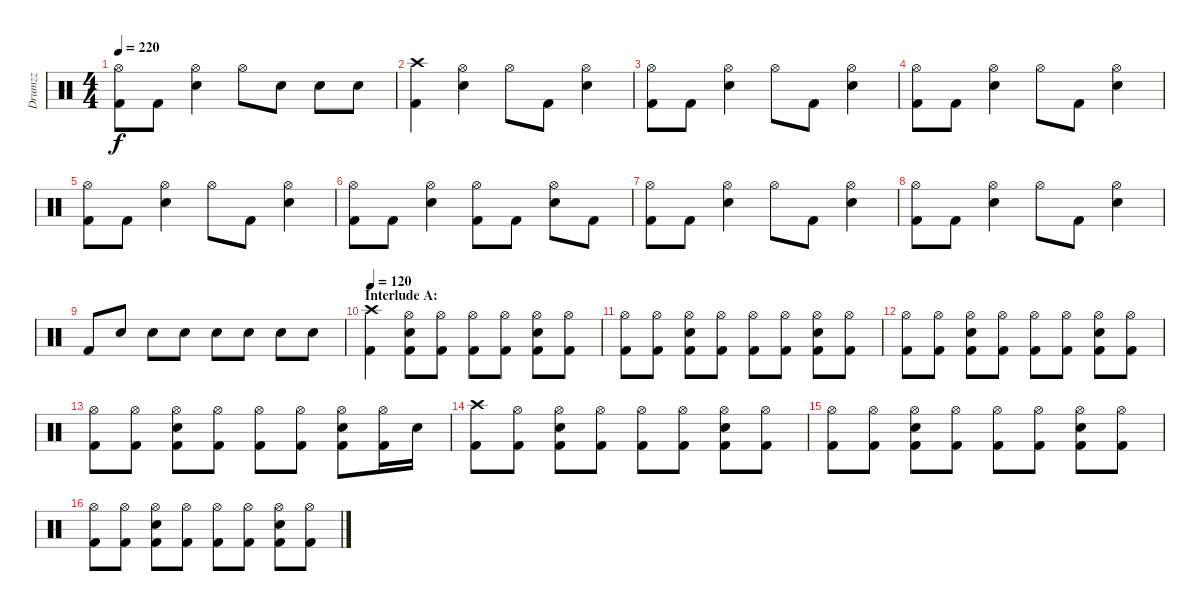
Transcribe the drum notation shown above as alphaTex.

\track ("Drumzz" "Drumzz") {instrument percussion}
\staff {score}
\articulation defaults
\ts (4 4)
\tempo 220
\clef neutral
\ks c
("Hi-Hat (open)" "Kick (hit) 2").8{dy f} "Kick (hit) 2".8 ("Hi-Hat (open)" "Electric Snare (hit)").4 "Hi-Hat (open)".8 "Electric Snare (hit)".8 "Electric Snare (hit)".8 "Electric Snare (hit)".8 |
("Crash high (hit)" "Kick (hit) 2").4 ("Hi-Hat (open)" "Electric Snare (hit)").4 "Hi-Hat (open)".8 "Kick (hit) 2".8 ("Hi-Hat (open)" "Electric Snare (hit)").4 |
("Hi-Hat (open)" "Kick (hit) 2").8 "Kick (hit) 2".8 ("Hi-Hat (open)" "Electric Snare (hit)").4 "Hi-Hat (open)".8 "Kick (hit) 2".8 ("Hi-Hat (open)" "Electric Snare (hit)").4 |
("Hi-Hat (open)" "Kick (hit) 2").8 "Kick (hit) 2".8 ("Hi-Hat (open)" "Electric Snare (hit)").4 "Hi-Hat (open)".8 "Kick (hit) 2".8 ("Hi-Hat (open)" "Electric Snare (hit)").4 |
("Hi-Hat (open)" "Kick (hit) 2").8 "Kick (hit) 2".8 ("Hi-Hat (open)" "Electric Snare (hit)").4 "Hi-Hat (open)".8 "Kick (hit) 2".8 ("Hi-Hat (open)" "Electric Snare (hit)").4 |
("Hi-Hat (open)" "Kick (hit) 2").8 "Kick (hit) 2".8 ("Hi-Hat (open)" "Electric Snare (hit)").4 ("Hi-Hat (open)" "Kick (hit) 2").8 "Kick (hit) 2".8 ("Hi-Hat (open)" "Electric Snare (hit)").8 "Kick (hit) 2".8 |
("Hi-Hat (open)" "Kick (hit) 2").8 "Kick (hit) 2".8 ("Hi-Hat (open)" "Electric Snare (hit)").4 "Hi-Hat (open)".8 "Kick (hit) 2".8 ("Hi-Hat (open)" "Electric Snare (hit)").4 |
("Hi-Hat (open)" "Kick (hit) 2").8 "Kick (hit) 2".8 ("Hi-Hat (open)" "Electric Snare (hit)").4 "Hi-Hat (open)".8 "Kick (hit) 2".8 ("Hi-Hat (open)" "Electric Snare (hit)").4 |
"Kick (hit) 2".8 "Electric Snare (hit)".8 "Electric Snare (hit)".8 "Electric Snare (hit)".8 "Electric Snare (hit)".8 "Electric Snare (hit)".8 "Electric Snare (hit)".8 "Electric Snare (hit)".8 |
\section ("" "Interlude A:")
\tempo 120
("Crash high (hit)" "Kick (hit) 2").4 ("Hi-Hat (open)" "Electric Snare (hit)" "Kick (hit) 2").8 ("Hi-Hat (open)" "Kick (hit) 2").8 ("Hi-Hat (open)" "Kick (hit) 2").8 ("Hi-Hat (open)" "Kick (hit) 2").8 ("Hi-Hat (open)" "Electric Snare (hit)" "Kick (hit) 2").8 ("Hi-Hat (open)" "Kick (hit) 2").8 |
("Hi-Hat (open)" "Kick (hit) 2").8 ("Hi-Hat (open)" "Kick (hit) 2").8 ("Hi-Hat (open)" "Electric Snare (hit)" "Kick (hit) 2").8 ("Hi-Hat (open)" "Kick (hit) 2").8 ("Hi-Hat (open)" "Kick (hit) 2").8 ("Hi-Hat (open)" "Kick (hit) 2").8 ("Hi-Hat (open)" "Electric Snare (hit)" "Kick (hit) 2").8 ("Hi-Hat (open)" "Kick (hit) 2").8 |
("Hi-Hat (open)" "Kick (hit) 2").8 ("Hi-Hat (open)" "Kick (hit) 2").8 ("Hi-Hat (open)" "Electric Snare (hit)" "Kick (hit) 2").8 ("Hi-Hat (open)" "Kick (hit) 2").8 ("Hi-Hat (open)" "Kick (hit) 2").8 ("Hi-Hat (open)" "Kick (hit) 2").8 ("Hi-Hat (open)" "Electric Snare (hit)" "Kick (hit) 2").8 ("Hi-Hat (open)" "Kick (hit) 2").8 |
("Hi-Hat (open)" "Kick (hit) 2").8 ("Hi-Hat (open)" "Kick (hit) 2").8 ("Hi-Hat (open)" "Electric Snare (hit)" "Kick (hit) 2").8 ("Hi-Hat (open)" "Kick (hit) 2").8 ("Hi-Hat (open)" "Kick (hit) 2").8 ("Hi-Hat (open)" "Kick (hit) 2").8 ("Hi-Hat (open)" "Electric Snare (hit)" "Kick (hit) 2").8 ("Hi-Hat (open)" "Kick (hit) 2").16 "Electric Snare (hit)".16 |
("Crash high (hit)" "Kick (hit) 2").8 ("Hi-Hat (open)" "Kick (hit) 2").8 ("Hi-Hat (open)" "Electric Snare (hit)" "Kick (hit) 2").8 ("Hi-Hat (open)" "Kick (hit) 2").8 ("Hi-Hat (open)" "Kick (hit) 2").8 ("Hi-Hat (open)" "Kick (hit) 2").8 ("Hi-Hat (open)" "Electric Snare (hit)" "Kick (hit) 2").8 ("Hi-Hat (open)" "Kick (hit) 2").8 |
("Hi-Hat (open)" "Kick (hit) 2").8 ("Hi-Hat (open)" "Kick (hit) 2").8 ("Hi-Hat (open)" "Electric Snare (hit)" "Kick (hit) 2").8 ("Hi-Hat (open)" "Kick (hit) 2").8 ("Hi-Hat (open)" "Kick (hit) 2").8 ("Hi-Hat (open)" "Kick (hit) 2").8 ("Hi-Hat (open)" "Electric Snare (hit)" "Kick (hit) 2").8 ("Hi-Hat (open)" "Kick (hit) 2").8 |
("Hi-Hat (open)" "Kick (hit) 2").8 ("Hi-Hat (open)" "Kick (hit) 2").8 ("Hi-Hat (open)" "Electric Snare (hit)" "Kick (hit) 2").8 ("Hi-Hat (open)" "Kick (hit) 2").8 ("Hi-Hat (open)" "Kick (hit) 2").8 ("Hi-Hat (open)" "Kick (hit) 2").8 ("Hi-Hat (open)" "Electric Snare (hit)" "Kick (hit) 2").8 ("Hi-Hat (open)" "Kick (hit) 2").8
